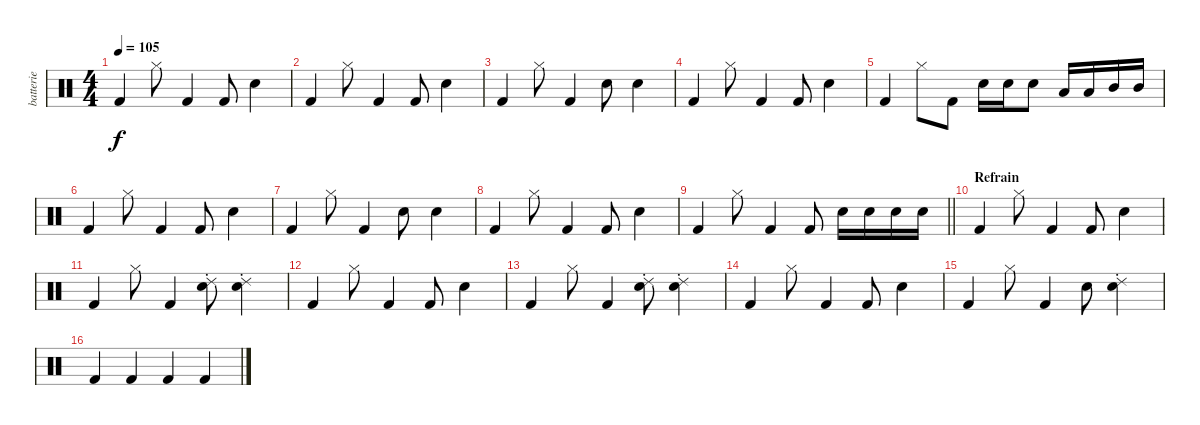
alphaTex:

\track ("batterie" "batterie") {instrument percussion}
\staff {score}
\articulation defaults
\ts (4 4)
\tempo 105
\clef neutral
\ks c "Kick (hit) 2".4{dy f} "Hi-Hat (closed)".8 "Kick (hit) 2".4 "Kick (hit) 2".8 "Electric Snare (hit)".4
|
"Kick (hit) 2".4 "Hi-Hat (closed)".8 "Kick (hit) 2".4 "Kick (hit) 2".8 "Electric Snare (hit)".4 |
"Kick (hit) 2".4 "Hi-Hat (closed)".8 "Kick (hit) 2".4 "Electric Snare (hit)".8 "Electric Snare (hit)".4 |
"Kick (hit) 2".4 "Hi-Hat (closed)".8 "Kick (hit) 2".4 "Kick (hit) 2".8 "Electric Snare (hit)".4 |
"Kick (hit) 2".4 "Hi-Hat (closed)".8 "Kick (hit) 2".8 "Electric Snare (hit)".16 "Electric Snare (hit)".16 "Electric Snare (hit)".8 "Low Tom (hit)".16 "Low Tom (hit)".16 "Mid Tom (hit)".16 "Mid Tom (hit)".16 |
"Kick (hit) 2".4 "Hi-Hat (closed)".8 "Kick (hit) 2".4 "Kick (hit) 2".8 "Electric Snare (hit)".4 |
"Kick (hit) 2".4 "Hi-Hat (closed)".8 "Kick (hit) 2".4 "Electric Snare (hit)".8 "Electric Snare (hit)".4 |
"Kick (hit) 2".4 "Hi-Hat (closed)".8 "Kick (hit) 2".4 "Kick (hit) 2".8 "Electric Snare (hit)".4 |
\barLineRight lightlight "Kick (hit) 2".4 "Hi-Hat (closed)".8 "Kick (hit) 2".4 "Kick (hit) 2".8 "Electric Snare (hit)".16 "Electric Snare (hit)".16 "Electric Snare (hit)".16 "Electric Snare (hit)".16
|
\section ("" "Refrain")
"Kick (hit) 2".4 "Hi-Hat (closed)".8 "Kick (hit) 2".4 "Kick (hit) 2".8 "Electric Snare (hit)".4 |
"Kick (hit) 2".4 "Hi-Hat (closed)".8 "Kick (hit) 2".4 ("Electric Snare (hit)" "Ride (choke) 2").8 ("Electric Snare (hit)" "Ride (choke) 2").4 |
"Kick (hit) 2".4 "Hi-Hat (closed)".8 "Kick (hit) 2".4 "Kick (hit) 2".8 "Electric Snare (hit)".4 |
"Kick (hit) 2".4 "Hi-Hat (closed)".8 "Kick (hit) 2".4 ("Electric Snare (hit)" "Ride (choke) 2").8 ("Electric Snare (hit)" "Ride (choke) 2").4 |
"Kick (hit) 2".4 "Hi-Hat (closed)".8 "Kick (hit) 2".4 "Kick (hit) 2".8 "Electric Snare (hit)".4 |
"Kick (hit) 2".4 "Hi-Hat (closed)".8 "Kick (hit) 2".4 "Electric Snare (hit)".8 ("Electric Snare (hit)" "Ride (choke) 2").4 |
"Kick (hit) 2".4 "Kick (hit) 2".4 "Kick (hit) 2".4 "Kick (hit) 2".4
